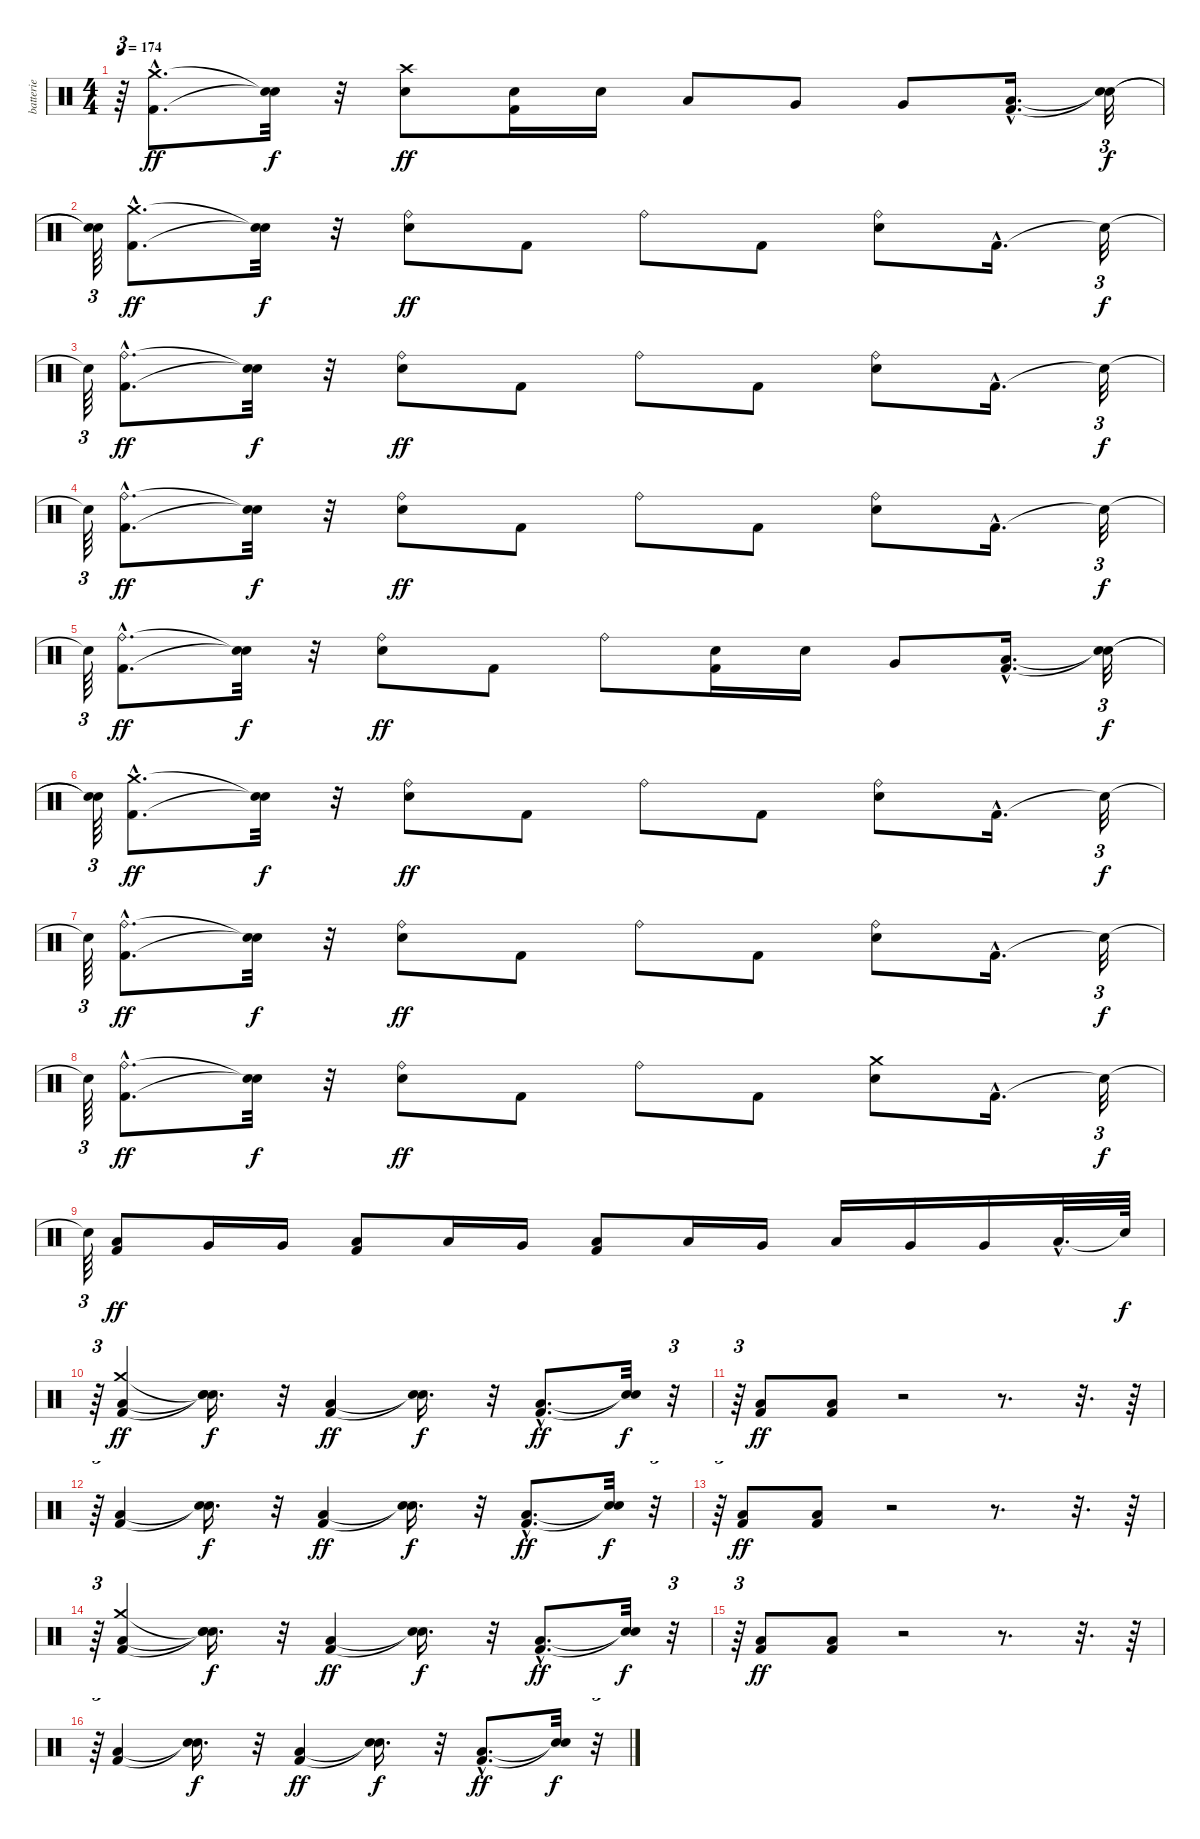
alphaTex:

\track ("batterie" "batterie") {instrument percussion}
\staff {score}
\articulation defaults
\ts (4 4)
\tempo 174
\clef neutral
\ks c
r.64{tu (3 2) dy f} ("Kick (hit) 2"{hac} "Crash medium (hit)"{hac}).8{d dy ff} ("Snare (hit)"{t} "Snare (hit)"{t}).32{dy f} r.32 ("Electric Snare (hit)" "Crash high (hit)").8{dy ff} ("Kick (hit) 2" "Electric Snare (hit)").16 "Electric Snare (hit)".16 "Low Tom (hit)".8 "Very Low Tom (hit)".8 "Very Low Tom (hit)".8 ("Kick (hit) 2"{hac} "Low Floor Tom (hit)"{hac}).16{d} ("Snare (hit)"{t} "Snare (hit)"{t}).32{tu (3 2) dy f} |
("Snare (hit)"{t} "Snare (hit)"{t}).64{tu (3 2)} ("Kick (hit) 2"{hac} "Crash medium (hit)"{hac}).8{d dy ff} ("Snare (hit)"{t} "Snare (hit)"{t}).32{dy f} r.32 ("Electric Snare (hit)" "Ride (bell)").8{dy ff} "Kick (hit) 2".8 "Ride (bell)".8 "Kick (hit) 2".8 ("Electric Snare (hit)" "Ride (bell)").8 "Kick (hit) 2"{hac}.16{d} "Snare (hit)"{t}.32{tu (3 2) dy f} |
"Snare (hit)"{t}.64{tu (3 2)} ("Kick (hit) 2"{hac} "Ride (bell)"{hac}).8{d dy ff} ("Snare (hit)"{t} "Snare (hit)"{t}).32{dy f} r.32 ("Electric Snare (hit)" "Ride (bell)").8{dy ff} "Kick (hit) 2".8 "Ride (bell)".8 "Kick (hit) 2".8 ("Electric Snare (hit)" "Ride (bell)").8 "Kick (hit) 2"{hac}.16{d} "Snare (hit)"{t}.32{tu (3 2) dy f} |
"Snare (hit)"{t}.64{tu (3 2)} ("Kick (hit) 2"{hac} "Ride (bell)"{hac}).8{d dy ff} ("Snare (hit)"{t} "Snare (hit)"{t}).32{dy f} r.32 ("Electric Snare (hit)" "Ride (bell)").8{dy ff} "Kick (hit) 2".8 "Ride (bell)".8 "Kick (hit) 2".8 ("Electric Snare (hit)" "Ride (bell)").8 "Kick (hit) 2"{hac}.16{d} "Snare (hit)"{t}.32{tu (3 2) dy f} |
"Snare (hit)"{t}.64{tu (3 2)} ("Kick (hit) 2"{hac} "Ride (bell)"{hac}).8{d dy ff} ("Snare (hit)"{t} "Snare (hit)"{t}).32{dy f} r.32 ("Electric Snare (hit)" "Ride (bell)").8{dy ff} "Kick (hit) 2".8 "Ride (bell)".8 ("Kick (hit) 2" "Electric Snare (hit)").16 "Electric Snare (hit)".16 "Very Low Tom (hit)".8 ("Kick (hit) 2"{hac} "Low Floor Tom (hit)"{hac}).16{d} ("Snare (hit)"{t} "Snare (hit)"{t}).32{tu (3 2) dy f} |
("Snare (hit)"{t} "Snare (hit)"{t}).64{tu (3 2)} ("Kick (hit) 2"{hac} "Crash medium (hit)"{hac}).8{d dy ff} ("Snare (hit)"{t} "Snare (hit)"{t}).32{dy f} r.32 ("Electric Snare (hit)" "Ride (bell)").8{dy ff} "Kick (hit) 2".8 "Ride (bell)".8 "Kick (hit) 2".8 ("Electric Snare (hit)" "Ride (bell)").8 "Kick (hit) 2"{hac}.16{d} "Snare (hit)"{t}.32{tu (3 2) dy f} |
"Snare (hit)"{t}.64{tu (3 2)} ("Kick (hit) 2"{hac} "Ride (bell)"{hac}).8{d dy ff} ("Snare (hit)"{t} "Snare (hit)"{t}).32{dy f} r.32 ("Electric Snare (hit)" "Ride (bell)").8{dy ff} "Kick (hit) 2".8 "Ride (bell)".8 "Kick (hit) 2".8 ("Electric Snare (hit)" "Ride (bell)").8 "Kick (hit) 2"{hac}.16{d} "Snare (hit)"{t}.32{tu (3 2) dy f} |
"Snare (hit)"{t}.64{tu (3 2)} ("Kick (hit) 2"{hac} "Ride (bell)"{hac}).8{d dy ff} ("Snare (hit)"{t} "Snare (hit)"{t}).32{dy f} r.32 ("Electric Snare (hit)" "Ride (bell)").8{dy ff} "Kick (hit) 2".8 "Ride (bell)".8 "Kick (hit) 2".8 ("Electric Snare (hit)" "Crash medium (hit)").8 "Kick (hit) 2"{hac}.16{d} "Snare (hit)"{t}.32{tu (3 2) dy f} |
"Snare (hit)"{t}.64{tu (3 2)} ("Kick (hit) 2" "Low Tom (hit)").8{dy ff} "Very Low Tom (hit)".16 "Very Low Tom (hit)".16 ("Kick (hit) 2" "Low Floor Tom (hit)").8 "Low Tom (hit)".16 "Very Low Tom (hit)".16 ("Kick (hit) 2" "Low Floor Tom (hit)").8 "Low Tom (hit)".16 "Very Low Tom (hit)".16 "Low Tom (hit)".16 "Very Low Tom (hit)".16 "Very Low Tom (hit)".16 "Low Floor Tom (hit)"{hac}.32{d} "Snare (hit)"{t}.64{dy f} |
r.64{tu (3 2)} ("Kick (hit) 2" "Low Floor Tom (hit)" "Crash medium (hit)").4{dy ff} ("Snare (hit)"{t} "Snare (hit)"{t} "Snare (hit)"{t}).16{d dy f} r.32 ("Kick (hit) 2" "Low Floor Tom (hit)").4{dy ff} ("Snare (hit)"{t} "Snare (hit)"{t}).16{d dy f} r.32 ("Kick (hit) 2"{hac} "Low Floor Tom (hit)"{hac}).8{d dy ff} ("Snare (hit)"{t} "Snare (hit)"{t}).32{dy f} r.32{tu (3 2)} |
r.64{tu (3 2)} ("Kick (hit) 2" "Low Floor Tom (hit)").8{dy ff} ("Kick (hit) 2" "Low Floor Tom (hit)").8 r.2 r.8{d} r.32{d} r.64 |
r.64{tu (3 2)} ("Kick (hit) 2" "Low Floor Tom (hit)").4 ("Snare (hit)"{t} "Snare (hit)"{t}).16{d dy f} r.32 ("Kick (hit) 2" "Low Floor Tom (hit)").4{dy ff} ("Snare (hit)"{t} "Snare (hit)"{t}).16{d dy f} r.32 ("Kick (hit) 2"{hac} "Low Floor Tom (hit)"{hac}).8{d dy ff} ("Snare (hit)"{t} "Snare (hit)"{t}).32{dy f} r.32{tu (3 2)} |
r.64{tu (3 2)} ("Kick (hit) 2" "Low Floor Tom (hit)").8{dy ff} ("Kick (hit) 2" "Low Floor Tom (hit)").8 r.2 r.8{d} r.32{d} r.64 |
r.64{tu (3 2)} ("Kick (hit) 2" "Low Floor Tom (hit)" "Crash medium (hit)").4 ("Snare (hit)"{t} "Snare (hit)"{t} "Snare (hit)"{t}).16{d dy f} r.32 ("Kick (hit) 2" "Low Floor Tom (hit)").4{dy ff} ("Snare (hit)"{t} "Snare (hit)"{t}).16{d dy f} r.32 ("Kick (hit) 2"{hac} "Low Floor Tom (hit)"{hac}).8{d dy ff} ("Snare (hit)"{t} "Snare (hit)"{t}).32{dy f} r.32{tu (3 2)} |
r.64{tu (3 2)} ("Kick (hit) 2" "Low Floor Tom (hit)").8{dy ff} ("Kick (hit) 2" "Low Floor Tom (hit)").8 r.2 r.8{d} r.32{d} r.64 |
r.64{tu (3 2)} ("Kick (hit) 2" "Low Floor Tom (hit)").4 ("Snare (hit)"{t} "Snare (hit)"{t}).16{d dy f} r.32 ("Kick (hit) 2" "Low Floor Tom (hit)").4{dy ff} ("Snare (hit)"{t} "Snare (hit)"{t}).16{d dy f} r.32 ("Kick (hit) 2"{hac} "Low Floor Tom (hit)"{hac}).8{d dy ff} ("Snare (hit)"{t} "Snare (hit)"{t}).32{dy f} r.32{tu (3 2)}
